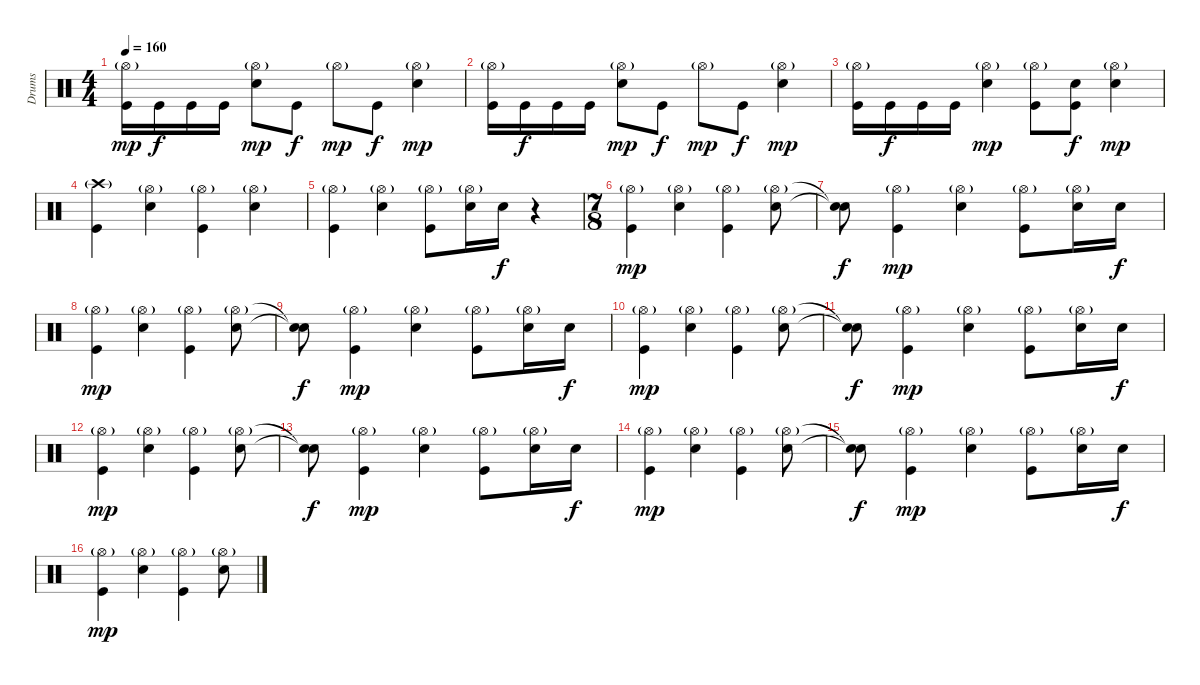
\track ("Drums" "Drums") {instrument percussion}
\staff {score}
\articulation defaults
\ts (4 4)
\tempo 160
\clef neutral
\ks c
("Hi-Hat (open)"{g} "Kick (hit)").16{dy mp} "Kick (hit)".16{dy f} "Kick (hit)".16 "Kick (hit)".16 ("Hi-Hat (open)"{g} "Snare (hit) 2").8{dy mp} "Kick (hit)".8{dy f} "Hi-Hat (open)"{g}.8{dy mp} "Kick (hit)".8{dy f} ("Hi-Hat (open)"{g} "Snare (hit) 2").4{dy mp} |
("Hi-Hat (open)"{g} "Kick (hit)").16 "Kick (hit)".16{dy f} "Kick (hit)".16 "Kick (hit)".16 ("Hi-Hat (open)"{g} "Snare (hit) 2").8{dy mp} "Kick (hit)".8{dy f} "Hi-Hat (open)"{g}.8{dy mp} "Kick (hit)".8{dy f} ("Hi-Hat (open)"{g} "Snare (hit) 2").4{dy mp} |
("Hi-Hat (open)"{g} "Kick (hit)").16 "Kick (hit)".16{dy f} "Kick (hit)".16 "Kick (hit)".16 ("Hi-Hat (open)"{g} "Snare (hit) 2").4{dy mp} ("Hi-Hat (open)"{g} "Kick (hit)").8 ("Snare (hit) 2" "Kick (hit)").8{dy f} ("Hi-Hat (open)"{g} "Snare (hit) 2").4{dy mp} |
("Crash high (hit)"{g} "Kick (hit)").4 ("Hi-Hat (open)"{g} "Snare (hit) 2").4 ("Hi-Hat (open)"{g} "Kick (hit)").4 ("Hi-Hat (open)"{g} "Snare (hit) 2").4 |
("Hi-Hat (open)"{g} "Kick (hit)").4 ("Hi-Hat (open)"{g} "Snare (hit) 2").4 ("Hi-Hat (open)"{g} "Kick (hit)").8 ("Hi-Hat (open)"{g} "Snare (hit) 2").16 "Snare (hit) 2".16{dy f} r.4 |
\ts (7 8)
("Hi-Hat (open)"{g} "Kick (hit)").4{dy mp} ("Hi-Hat (open)"{g} "Snare (hit) 2").4 ("Hi-Hat (open)"{g} "Kick (hit)").4 ("Hi-Hat (open)"{g} "Snare (hit) 2").8 |
("Snare (hit)"{t} "Snare (hit)"{t}).8{dy f} ("Hi-Hat (open)"{g} "Kick (hit)").4{dy mp} ("Hi-Hat (open)"{g} "Snare (hit) 2").4 ("Hi-Hat (open)"{g} "Kick (hit)").8 ("Hi-Hat (open)"{g} "Snare (hit) 2").16 "Snare (hit) 2".16{dy f} |
("Hi-Hat (open)"{g} "Kick (hit)").4{dy mp} ("Hi-Hat (open)"{g} "Snare (hit) 2").4 ("Hi-Hat (open)"{g} "Kick (hit)").4 ("Hi-Hat (open)"{g} "Snare (hit) 2").8 |
("Snare (hit)"{t} "Snare (hit)"{t}).8{dy f} ("Hi-Hat (open)"{g} "Kick (hit)").4{dy mp} ("Hi-Hat (open)"{g} "Snare (hit) 2").4 ("Hi-Hat (open)"{g} "Kick (hit)").8 ("Hi-Hat (open)"{g} "Snare (hit) 2").16 "Snare (hit) 2".16{dy f} |
("Hi-Hat (open)"{g} "Kick (hit)").4{dy mp} ("Hi-Hat (open)"{g} "Snare (hit) 2").4 ("Hi-Hat (open)"{g} "Kick (hit)").4 ("Hi-Hat (open)"{g} "Snare (hit) 2").8 |
("Snare (hit)"{t} "Snare (hit)"{t}).8{dy f} ("Hi-Hat (open)"{g} "Kick (hit)").4{dy mp} ("Hi-Hat (open)"{g} "Snare (hit) 2").4 ("Hi-Hat (open)"{g} "Kick (hit)").8 ("Hi-Hat (open)"{g} "Snare (hit) 2").16 "Snare (hit) 2".16{dy f} |
("Hi-Hat (open)"{g} "Kick (hit)").4{dy mp} ("Hi-Hat (open)"{g} "Snare (hit) 2").4 ("Hi-Hat (open)"{g} "Kick (hit)").4 ("Hi-Hat (open)"{g} "Snare (hit) 2").8 |
("Snare (hit)"{t} "Snare (hit)"{t}).8{dy f} ("Hi-Hat (open)"{g} "Kick (hit)").4{dy mp} ("Hi-Hat (open)"{g} "Snare (hit) 2").4 ("Hi-Hat (open)"{g} "Kick (hit)").8 ("Hi-Hat (open)"{g} "Snare (hit) 2").16 "Snare (hit) 2".16{dy f} |
("Hi-Hat (open)"{g} "Kick (hit)").4{dy mp} ("Hi-Hat (open)"{g} "Snare (hit) 2").4 ("Hi-Hat (open)"{g} "Kick (hit)").4 ("Hi-Hat (open)"{g} "Snare (hit) 2").8 |
("Snare (hit)"{t} "Snare (hit)"{t}).8{dy f} ("Hi-Hat (open)"{g} "Kick (hit)").4{dy mp} ("Hi-Hat (open)"{g} "Snare (hit) 2").4 ("Hi-Hat (open)"{g} "Kick (hit)").8 ("Hi-Hat (open)"{g} "Snare (hit) 2").16 "Snare (hit) 2".16{dy f} |
("Hi-Hat (open)"{g} "Kick (hit)").4{dy mp} ("Hi-Hat (open)"{g} "Snare (hit) 2").4 ("Hi-Hat (open)"{g} "Kick (hit)").4 ("Hi-Hat (open)"{g} "Snare (hit) 2").8
